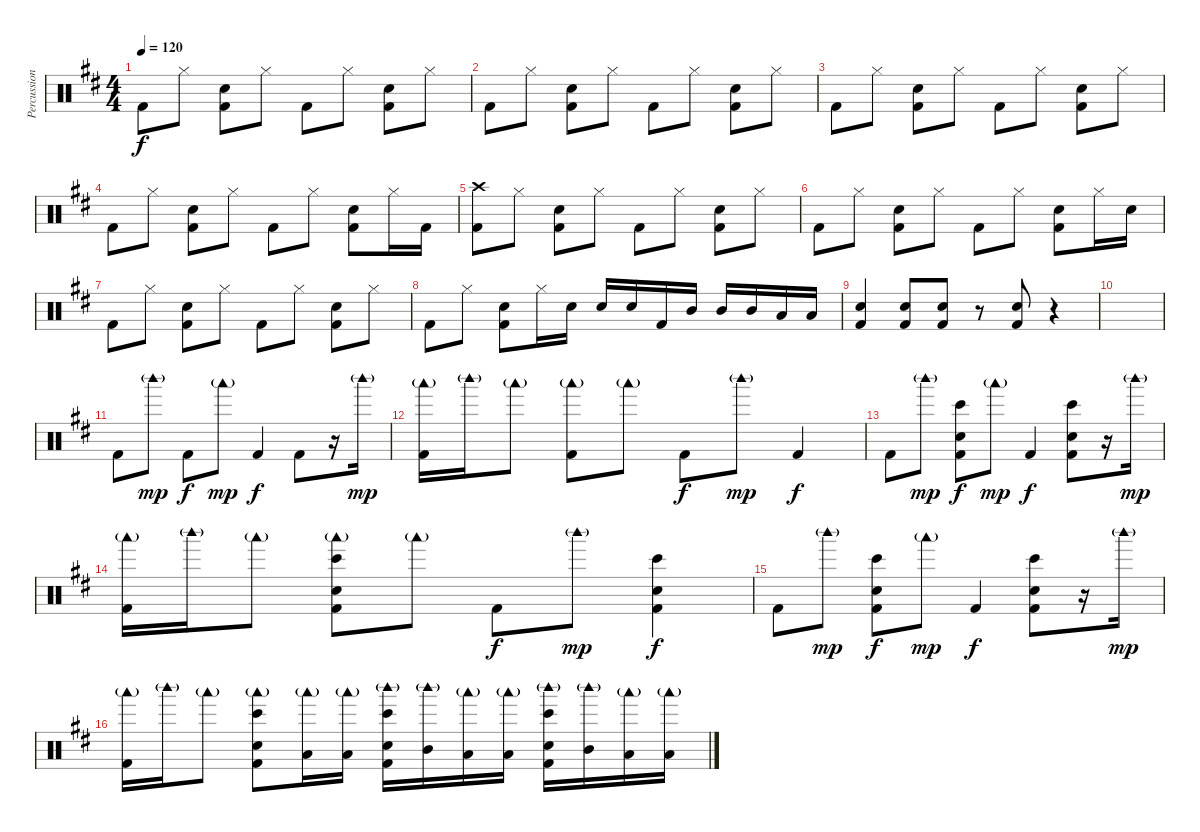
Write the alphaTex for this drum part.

\track ("Percussion" "Percussion") {instrument percussion}
\staff {score}
\articulation defaults
\ts (4 4)
\tempo 120
\clef neutral
\ks d "Kick (hit) 2".8{dy f} "Hi-Hat (closed)".8
("Snare (hit) 2" "Kick (hit) 2").8 "Hi-Hat (closed)".8 "Kick (hit) 2".8 "Hi-Hat (closed)".8 ("Snare (hit) 2" "Kick (hit) 2").8 "Hi-Hat (closed)".8 |
"Kick (hit) 2".8 "Hi-Hat (closed)".8 ("Snare (hit) 2" "Kick (hit) 2").8 "Hi-Hat (closed)".8 "Kick (hit) 2".8 "Hi-Hat (closed)".8 ("Snare (hit) 2" "Kick (hit) 2").8 "Hi-Hat (closed)".8 |
"Kick (hit) 2".8 "Hi-Hat (closed)".8 ("Snare (hit) 2" "Kick (hit) 2").8 "Hi-Hat (closed)".8 "Kick (hit) 2".8 "Hi-Hat (closed)".8 ("Snare (hit) 2" "Kick (hit) 2").8 "Hi-Hat (closed)".8 |
"Kick (hit) 2".8 "Hi-Hat (closed)".8 ("Snare (hit) 2" "Kick (hit) 2").8 "Hi-Hat (closed)".8 "Kick (hit) 2".8 "Hi-Hat (closed)".8 ("Snare (hit) 2" "Kick (hit) 2").8 "Hi-Hat (closed)".16 "Kick (hit) 2".16 |
("Crash high (hit)" "Kick (hit) 2").8 "Hi-Hat (closed)".8 ("Snare (hit) 2" "Kick (hit) 2").8 "Hi-Hat (closed)".8 "Kick (hit) 2".8 "Hi-Hat (closed)".8 ("Snare (hit) 2" "Kick (hit) 2").8 "Hi-Hat (closed)".8 |
"Kick (hit) 2".8 "Hi-Hat (closed)".8 ("Snare (hit) 2" "Kick (hit) 2").8 "Hi-Hat (closed)".8 "Kick (hit) 2".8 "Hi-Hat (closed)".8 ("Snare (hit) 2" "Kick (hit) 2").8 "Hi-Hat (closed)".16 "Snare (hit) 2".16 |
"Kick (hit) 2".8 "Hi-Hat (closed)".8 ("Snare (hit) 2" "Kick (hit) 2").8 "Hi-Hat (closed)".8 "Kick (hit) 2".8 "Hi-Hat (closed)".8 ("Snare (hit) 2" "Kick (hit) 2").8 "Hi-Hat (closed)".8 |
"Kick (hit) 2".8 "Hi-Hat (closed)".8 ("Snare (hit) 2" "Kick (hit) 2").8 "Hi-Hat (closed)".16 "Snare (hit) 2".16 "Snare (hit) 2".16 "Snare (hit) 2".16 "Kick (hit) 2".16 "Mid Tom (hit)".16 "Mid Tom (hit)".16 "Mid Tom (hit)".16 "Low Tom (hit)".16 "Low Tom (hit)".16 |
("Snare (hit) 2" "Kick (hit) 2").4 ("Snare (hit) 2" "Kick (hit) 2").8 ("Snare (hit) 2" "Kick (hit) 2").8 r.8 ("Snare (hit) 2" "Kick (hit) 2").8 r.4 |
|
"Kick (hit) 2".8 "Woodblock high (hit)"{g}.8{dy mp} "Kick (hit) 2".8{dy f} "Woodblock low (hit)"{g}.8{dy mp} "Kick (hit) 2".4{dy f} "Kick (hit) 2".8 r.16 "Woodblock high (hit)"{g}.16{dy mp} |
("Woodblock low (hit)"{g} "Kick (hit) 2").16 "Woodblock high (hit)"{g}.16 "Woodblock low (hit)"{g}.8 ("Woodblock low (hit)"{g} "Kick (hit) 2").8 "Woodblock low (hit)"{g}.8 "Kick (hit) 2".8{dy f} "Woodblock high (hit)"{g}.8{dy mp} "Kick (hit) 2".4{dy f} |
"Kick (hit) 2".8 "Woodblock high (hit)"{g}.8{dy mp} ("Snare (hit) 2" "Bongo High (hit)" "Kick (hit) 2").8{dy f} "Woodblock low (hit)"{g}.8{dy mp} "Kick (hit) 2".4{dy f} ("Snare (hit) 2" "Bongo High (hit)" "Kick (hit) 2").8 r.16 "Woodblock high (hit)"{g}.16{dy mp} |
("Woodblock low (hit)"{g} "Kick (hit) 2").16 "Woodblock high (hit)"{g}.16 "Woodblock low (hit)"{g}.8 ("Woodblock low (hit)"{g} "Snare (hit) 2" "Bongo High (hit)" "Kick (hit) 2").8 "Woodblock low (hit)"{g}.8 "Kick (hit) 2".8{dy f} "Woodblock high (hit)"{g}.8{dy mp} ("Bongo High (hit)" "Snare (hit) 2" "Kick (hit) 2").4{dy f} |
"Kick (hit) 2".8 "Woodblock high (hit)"{g}.8{dy mp} ("Snare (hit) 2" "Bongo High (hit)" "Kick (hit) 2").8{dy f} "Woodblock low (hit)"{g}.8{dy mp} "Kick (hit) 2".4{dy f} ("Snare (hit) 2" "Bongo High (hit)" "Kick (hit) 2").8 r.16 "Woodblock high (hit)"{g}.16{dy mp} |
("Woodblock low (hit)"{g} "Kick (hit) 2").16 "Woodblock high (hit)"{g}.16 "Woodblock low (hit)"{g}.8 ("Woodblock low (hit)"{g} "Snare (hit) 2" "Bongo High (hit)" "Kick (hit) 2").8 ("Woodblock low (hit)"{g} "Low Tom (hit)").16 ("Woodblock low (hit)"{g} "Low Tom (hit)").16 ("Woodblock high (hit)"{g} "Snare (hit) 2" "Bongo High (hit)" "Kick (hit) 2").16 ("Woodblock high (hit)"{g} "Mid Tom (hit)").16 ("Woodblock low (hit)"{g} "Low Tom (hit)").16 ("Woodblock low (hit)"{g} "Low Tom (hit)").16 ("Woodblock high (hit)"{g} "Snare (hit) 2" "Bongo High (hit)" "Kick (hit) 2").16 ("Woodblock high (hit)"{g} "Mid Tom (hit)").16 ("Woodblock low (hit)"{g} "Low Tom (hit)").16 ("Woodblock low (hit)"{g} "Low Tom (hit)").16
